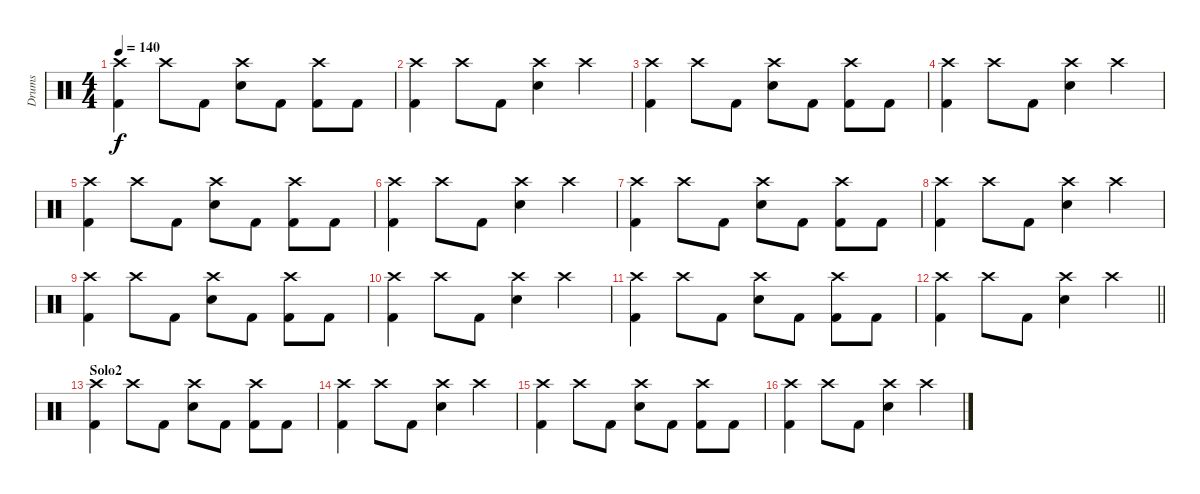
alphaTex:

\track ("Drums" "Drums") {instrument percussion}
\staff {score}
\articulation defaults
\ts (4 4)
\tempo 140
\clef neutral
\ks c
("Kick (hit) 2" "Crash high (hit)").4{dy f} "Crash high (hit)".8 "Kick (hit) 2".8 ("Snare (hit) 2" "Crash high (hit)").8 "Kick (hit) 2".8 ("Kick (hit) 2" "Crash high (hit)").8 "Kick (hit) 2".8 |
("Kick (hit) 2" "Crash high (hit)").4 "Crash high (hit)".8 "Kick (hit) 2".8 ("Snare (hit) 2" "Crash high (hit)").4 "Crash high (hit)".4 |
("Kick (hit) 2" "Crash high (hit)").4 "Crash high (hit)".8 "Kick (hit) 2".8 ("Snare (hit) 2" "Crash high (hit)").8 "Kick (hit) 2".8 ("Kick (hit) 2" "Crash high (hit)").8 "Kick (hit) 2".8 |
("Kick (hit) 2" "Crash high (hit)").4 "Crash high (hit)".8 "Kick (hit) 2".8 ("Snare (hit) 2" "Crash high (hit)").4 "Crash high (hit)".4 |
("Kick (hit) 2" "Crash high (hit)").4 "Crash high (hit)".8 "Kick (hit) 2".8 ("Snare (hit) 2" "Crash high (hit)").8 "Kick (hit) 2".8 ("Kick (hit) 2" "Crash high (hit)").8 "Kick (hit) 2".8 |
("Kick (hit) 2" "Crash high (hit)").4 "Crash high (hit)".8 "Kick (hit) 2".8 ("Snare (hit) 2" "Crash high (hit)").4 "Crash high (hit)".4 |
("Kick (hit) 2" "Crash high (hit)").4 "Crash high (hit)".8 "Kick (hit) 2".8 ("Snare (hit) 2" "Crash high (hit)").8 "Kick (hit) 2".8 ("Kick (hit) 2" "Crash high (hit)").8 "Kick (hit) 2".8 |
("Kick (hit) 2" "Crash high (hit)").4 "Crash high (hit)".8 "Kick (hit) 2".8 ("Snare (hit) 2" "Crash high (hit)").4 "Crash high (hit)".4 |
("Kick (hit) 2" "Crash high (hit)").4 "Crash high (hit)".8 "Kick (hit) 2".8 ("Snare (hit) 2" "Crash high (hit)").8 "Kick (hit) 2".8 ("Kick (hit) 2" "Crash high (hit)").8 "Kick (hit) 2".8 |
("Kick (hit) 2" "Crash high (hit)").4 "Crash high (hit)".8 "Kick (hit) 2".8 ("Snare (hit) 2" "Crash high (hit)").4 "Crash high (hit)".4 |
("Kick (hit) 2" "Crash high (hit)").4 "Crash high (hit)".8 "Kick (hit) 2".8 ("Snare (hit) 2" "Crash high (hit)").8 "Kick (hit) 2".8 ("Kick (hit) 2" "Crash high (hit)").8 "Kick (hit) 2".8 |
\barLineRight lightlight
("Kick (hit) 2" "Crash high (hit)").4 "Crash high (hit)".8 "Kick (hit) 2".8 ("Snare (hit) 2" "Crash high (hit)").4 "Crash high (hit)".4 |
\section ("" "Solo2")
("Kick (hit) 2" "Crash high (hit)").4 "Crash high (hit)".8 "Kick (hit) 2".8 ("Snare (hit) 2" "Crash high (hit)").8 "Kick (hit) 2".8 ("Kick (hit) 2" "Crash high (hit)").8 "Kick (hit) 2".8 |
("Kick (hit) 2" "Crash high (hit)").4 "Crash high (hit)".8 "Kick (hit) 2".8 ("Snare (hit) 2" "Crash high (hit)").4 "Crash high (hit)".4 |
("Kick (hit) 2" "Crash high (hit)").4 "Crash high (hit)".8 "Kick (hit) 2".8 ("Snare (hit) 2" "Crash high (hit)").8 "Kick (hit) 2".8 ("Kick (hit) 2" "Crash high (hit)").8 "Kick (hit) 2".8 |
("Kick (hit) 2" "Crash high (hit)").4 "Crash high (hit)".8 "Kick (hit) 2".8 ("Snare (hit) 2" "Crash high (hit)").4 "Crash high (hit)".4
